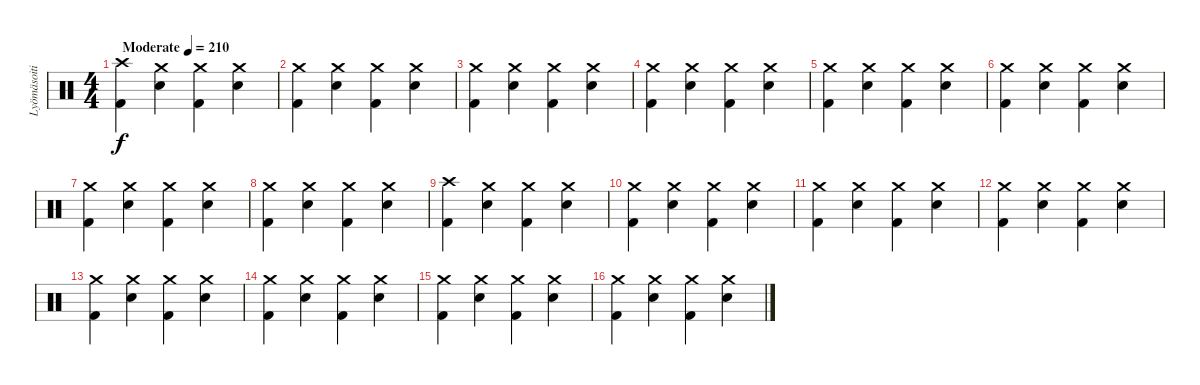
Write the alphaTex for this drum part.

\track ("Lyömäsoitin" "Lyömäsoiti") {instrument percussion}
\staff {score}
\articulation defaults
\ts (4 4)
\tempo (210 "Moderate")
\clef neutral
\ks c
("Crash high (hit)" "Kick (hit) 2").4{dy f} ("Crash medium (hit)" "Electric Snare (hit)").4 ("Crash medium (hit)" "Kick (hit) 2").4 ("Crash medium (hit)" "Electric Snare (hit)").4 |
("Crash medium (hit)" "Kick (hit) 2").4 ("Crash medium (hit)" "Electric Snare (hit)").4 ("Crash medium (hit)" "Kick (hit) 2").4 ("Crash medium (hit)" "Electric Snare (hit)").4 |
("Crash medium (hit)" "Kick (hit) 2").4 ("Crash medium (hit)" "Electric Snare (hit)").4 ("Crash medium (hit)" "Kick (hit) 2").4 ("Crash medium (hit)" "Electric Snare (hit)").4 |
("Crash medium (hit)" "Kick (hit) 2").4 ("Crash medium (hit)" "Electric Snare (hit)").4 ("Crash medium (hit)" "Kick (hit) 2").4 ("Crash medium (hit)" "Electric Snare (hit)").4 |
("Crash medium (hit)" "Kick (hit) 2").4 ("Crash medium (hit)" "Electric Snare (hit)").4 ("Crash medium (hit)" "Kick (hit) 2").4 ("Crash medium (hit)" "Electric Snare (hit)").4 |
("Crash medium (hit)" "Kick (hit) 2").4 ("Crash medium (hit)" "Electric Snare (hit)").4 ("Crash medium (hit)" "Kick (hit) 2").4 ("Crash medium (hit)" "Electric Snare (hit)").4 |
("Crash medium (hit)" "Kick (hit) 2").4 ("Crash medium (hit)" "Electric Snare (hit)").4 ("Crash medium (hit)" "Kick (hit) 2").4 ("Crash medium (hit)" "Electric Snare (hit)").4 |
("Crash medium (hit)" "Kick (hit) 2").4 ("Crash medium (hit)" "Electric Snare (hit)").4 ("Crash medium (hit)" "Kick (hit) 2").4 ("Crash medium (hit)" "Electric Snare (hit)").4 |
("Crash high (hit)" "Kick (hit) 2").4 ("Crash medium (hit)" "Electric Snare (hit)").4 ("Crash medium (hit)" "Kick (hit) 2").4 ("Crash medium (hit)" "Electric Snare (hit)").4 |
("Crash medium (hit)" "Kick (hit) 2").4 ("Crash medium (hit)" "Electric Snare (hit)").4 ("Crash medium (hit)" "Kick (hit) 2").4 ("Crash medium (hit)" "Electric Snare (hit)").4 |
("Crash medium (hit)" "Kick (hit) 2").4 ("Crash medium (hit)" "Electric Snare (hit)").4 ("Crash medium (hit)" "Kick (hit) 2").4 ("Crash medium (hit)" "Electric Snare (hit)").4 |
("Crash medium (hit)" "Kick (hit) 2").4 ("Crash medium (hit)" "Electric Snare (hit)").4 ("Crash medium (hit)" "Kick (hit) 2").4 ("Crash medium (hit)" "Electric Snare (hit)").4 |
("Crash medium (hit)" "Kick (hit) 2").4 ("Crash medium (hit)" "Electric Snare (hit)").4 ("Crash medium (hit)" "Kick (hit) 2").4 ("Crash medium (hit)" "Electric Snare (hit)").4 |
("Crash medium (hit)" "Kick (hit) 2").4 ("Crash medium (hit)" "Electric Snare (hit)").4 ("Crash medium (hit)" "Kick (hit) 2").4 ("Crash medium (hit)" "Electric Snare (hit)").4 |
("Crash medium (hit)" "Kick (hit) 2").4 ("Crash medium (hit)" "Electric Snare (hit)").4 ("Crash medium (hit)" "Kick (hit) 2").4 ("Crash medium (hit)" "Electric Snare (hit)").4 |
("Crash medium (hit)" "Kick (hit) 2").4 ("Crash medium (hit)" "Electric Snare (hit)").4 ("Crash medium (hit)" "Kick (hit) 2").4 ("Crash medium (hit)" "Electric Snare (hit)").4
